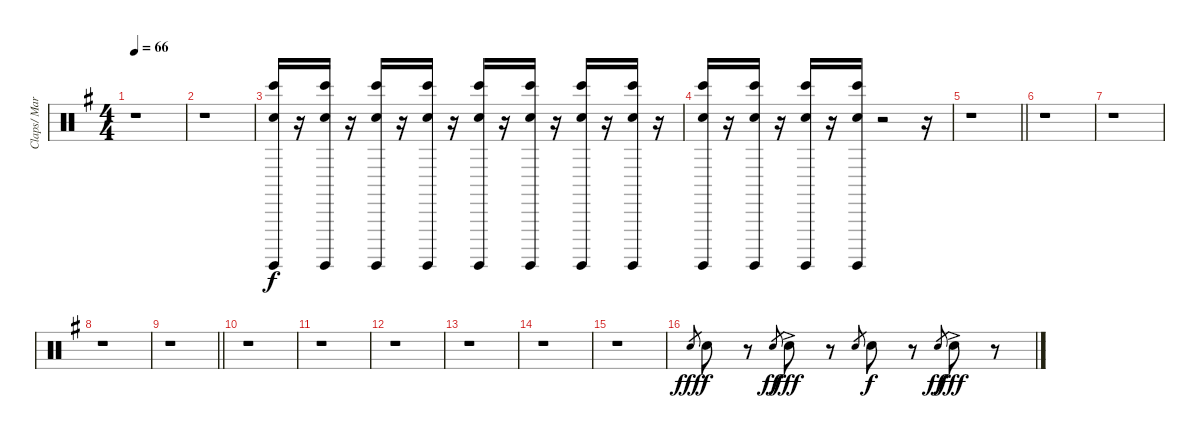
\track ("Claps/ Marching FX" "Claps/ Mar") {instrument percussion}
\staff {score}
\articulation defaults
\ts (4 4)
\tempo 66
\clef neutral
\ks g
r.1{dy f} |
r.1 |
("Surdo (hit)" "Hand Clap (hit)" "Bongo High (hit)").16{balance 0} r.16 ("Surdo (hit)" "Hand Clap (hit)" "Bongo High (hit)").16{balance 16} r.16 ("Surdo (hit)" "Hand Clap (hit)" "Bongo High (hit)").16{balance 0} r.16 ("Surdo (hit)" "Hand Clap (hit)" "Bongo High (hit)").16{balance 16} r.16 ("Surdo (hit)" "Hand Clap (hit)" "Bongo High (hit)").16{balance 0} r.16 ("Surdo (hit)" "Hand Clap (hit)" "Bongo High (hit)").16{balance 16} r.16 ("Surdo (hit)" "Hand Clap (hit)" "Bongo High (hit)").16{balance 0} r.16 ("Surdo (hit)" "Hand Clap (hit)" "Bongo High (hit)").16{balance 16} r.16 |
("Surdo (hit)" "Hand Clap (hit)" "Bongo High (hit)").16{balance 0} r.16 ("Surdo (hit)" "Hand Clap (hit)" "Bongo High (hit)").16{balance 16} r.16 ("Surdo (hit)" "Hand Clap (hit)" "Bongo High (hit)").16{balance 0} r.16 ("Surdo (hit)" "Hand Clap (hit)" "Bongo High (hit)").16{balance 8} r.2 r.16 |
\barLineRight lightlight
r.1 |
r.1 |
r.1 |
r.1 |
\barLineRight lightlight
r.1 |
r.1 |
r.1 |
r.1 |
r.1 |
r.1 |
r.1 |
"Hand Clap (hit)".8{gr dy fff} "Hand Clap (hit)".8{dy f balance 12} r.8 "Hand Clap (hit)".8{gr dy ff} "Hand Clap (hit)"{ac}.8{dy fff balance 4} r.8 "Hand Clap (hit)".8{gr} "Hand Clap (hit)".8{dy f balance 12} r.8 "Hand Clap (hit)".8{gr dy ff} "Hand Clap (hit)"{ac}.8{dy fff balance 4} r.8
